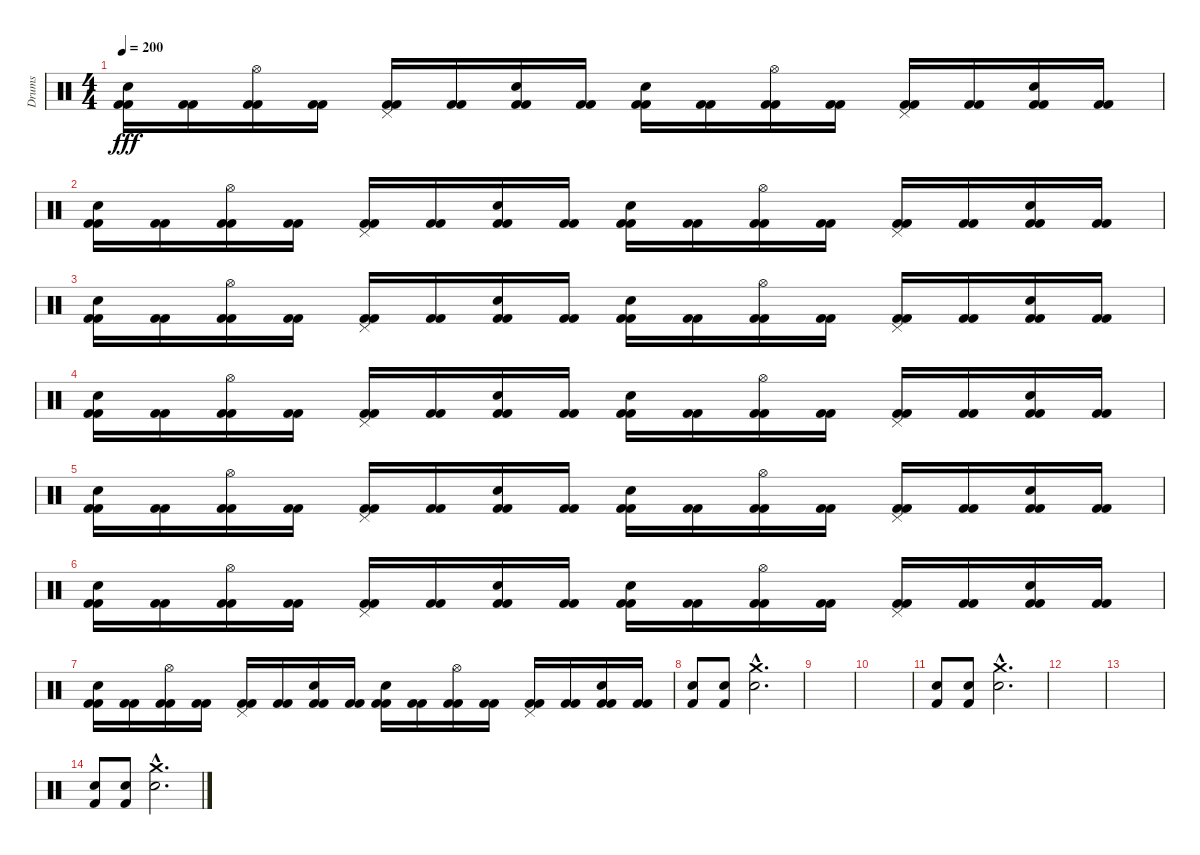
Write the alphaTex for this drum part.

\track ("Drums" "Drums") {instrument percussion}
\staff {score}
\articulation defaults
\ts (4 4)
\tempo 200
\clef neutral
\ks c
("Electric Snare (hit)" "Kick (hit) 2" "Kick (hit) 2").16{dy fff} ("Kick (hit) 2" "Kick (hit) 2").16 ("Hi-Hat (open)" "Kick (hit) 2" "Kick (hit) 2").16 ("Kick (hit) 2" "Kick (hit) 2").16 ("Pedal Hi-Hat (hit)" "Kick (hit) 2" "Kick (hit) 2").16 ("Kick (hit) 2" "Kick (hit) 2").16 ("Electric Snare (hit)" "Kick (hit) 2" "Kick (hit) 2").16 ("Kick (hit) 2" "Kick (hit) 2").16 ("Electric Snare (hit)" "Kick (hit) 2" "Kick (hit) 2").16 ("Kick (hit) 2" "Kick (hit) 2").16 ("Hi-Hat (open)" "Kick (hit) 2" "Kick (hit) 2").16 ("Kick (hit) 2" "Kick (hit) 2").16 ("Pedal Hi-Hat (hit)" "Kick (hit) 2" "Kick (hit) 2").16 ("Kick (hit) 2" "Kick (hit) 2").16 ("Electric Snare (hit)" "Kick (hit) 2" "Kick (hit) 2").16 ("Kick (hit) 2" "Kick (hit) 2").16 |
("Electric Snare (hit)" "Kick (hit) 2" "Kick (hit) 2").16 ("Kick (hit) 2" "Kick (hit) 2").16 ("Hi-Hat (open)" "Kick (hit) 2" "Kick (hit) 2").16 ("Kick (hit) 2" "Kick (hit) 2").16 ("Pedal Hi-Hat (hit)" "Kick (hit) 2" "Kick (hit) 2").16 ("Kick (hit) 2" "Kick (hit) 2").16 ("Electric Snare (hit)" "Kick (hit) 2" "Kick (hit) 2").16 ("Kick (hit) 2" "Kick (hit) 2").16 ("Electric Snare (hit)" "Kick (hit) 2" "Kick (hit) 2").16 ("Kick (hit) 2" "Kick (hit) 2").16 ("Hi-Hat (open)" "Kick (hit) 2" "Kick (hit) 2").16 ("Kick (hit) 2" "Kick (hit) 2").16 ("Pedal Hi-Hat (hit)" "Kick (hit) 2" "Kick (hit) 2").16 ("Kick (hit) 2" "Kick (hit) 2").16 ("Electric Snare (hit)" "Kick (hit) 2" "Kick (hit) 2").16 ("Kick (hit) 2" "Kick (hit) 2").16 |
("Electric Snare (hit)" "Kick (hit) 2" "Kick (hit) 2").16 ("Kick (hit) 2" "Kick (hit) 2").16 ("Hi-Hat (open)" "Kick (hit) 2" "Kick (hit) 2").16 ("Kick (hit) 2" "Kick (hit) 2").16 ("Pedal Hi-Hat (hit)" "Kick (hit) 2" "Kick (hit) 2").16 ("Kick (hit) 2" "Kick (hit) 2").16 ("Electric Snare (hit)" "Kick (hit) 2" "Kick (hit) 2").16 ("Kick (hit) 2" "Kick (hit) 2").16 ("Electric Snare (hit)" "Kick (hit) 2" "Kick (hit) 2").16 ("Kick (hit) 2" "Kick (hit) 2").16 ("Hi-Hat (open)" "Kick (hit) 2" "Kick (hit) 2").16 ("Kick (hit) 2" "Kick (hit) 2").16 ("Pedal Hi-Hat (hit)" "Kick (hit) 2" "Kick (hit) 2").16 ("Kick (hit) 2" "Kick (hit) 2").16 ("Electric Snare (hit)" "Kick (hit) 2" "Kick (hit) 2").16 ("Kick (hit) 2" "Kick (hit) 2").16 |
("Electric Snare (hit)" "Kick (hit) 2" "Kick (hit) 2").16 ("Kick (hit) 2" "Kick (hit) 2").16 ("Hi-Hat (open)" "Kick (hit) 2" "Kick (hit) 2").16 ("Kick (hit) 2" "Kick (hit) 2").16 ("Pedal Hi-Hat (hit)" "Kick (hit) 2" "Kick (hit) 2").16 ("Kick (hit) 2" "Kick (hit) 2").16 ("Electric Snare (hit)" "Kick (hit) 2" "Kick (hit) 2").16 ("Kick (hit) 2" "Kick (hit) 2").16 ("Electric Snare (hit)" "Kick (hit) 2" "Kick (hit) 2").16 ("Kick (hit) 2" "Kick (hit) 2").16 ("Hi-Hat (open)" "Kick (hit) 2" "Kick (hit) 2").16 ("Kick (hit) 2" "Kick (hit) 2").16 ("Pedal Hi-Hat (hit)" "Kick (hit) 2" "Kick (hit) 2").16 ("Kick (hit) 2" "Kick (hit) 2").16 ("Electric Snare (hit)" "Kick (hit) 2" "Kick (hit) 2").16 ("Kick (hit) 2" "Kick (hit) 2").16 |
("Electric Snare (hit)" "Kick (hit) 2" "Kick (hit) 2").16 ("Kick (hit) 2" "Kick (hit) 2").16 ("Hi-Hat (open)" "Kick (hit) 2" "Kick (hit) 2").16 ("Kick (hit) 2" "Kick (hit) 2").16 ("Pedal Hi-Hat (hit)" "Kick (hit) 2" "Kick (hit) 2").16 ("Kick (hit) 2" "Kick (hit) 2").16 ("Electric Snare (hit)" "Kick (hit) 2" "Kick (hit) 2").16 ("Kick (hit) 2" "Kick (hit) 2").16 ("Electric Snare (hit)" "Kick (hit) 2" "Kick (hit) 2").16 ("Kick (hit) 2" "Kick (hit) 2").16 ("Hi-Hat (open)" "Kick (hit) 2" "Kick (hit) 2").16 ("Kick (hit) 2" "Kick (hit) 2").16 ("Pedal Hi-Hat (hit)" "Kick (hit) 2" "Kick (hit) 2").16 ("Kick (hit) 2" "Kick (hit) 2").16 ("Electric Snare (hit)" "Kick (hit) 2" "Kick (hit) 2").16 ("Kick (hit) 2" "Kick (hit) 2").16 |
("Electric Snare (hit)" "Kick (hit) 2" "Kick (hit) 2").16 ("Kick (hit) 2" "Kick (hit) 2").16 ("Hi-Hat (open)" "Kick (hit) 2" "Kick (hit) 2").16 ("Kick (hit) 2" "Kick (hit) 2").16 ("Pedal Hi-Hat (hit)" "Kick (hit) 2" "Kick (hit) 2").16 ("Kick (hit) 2" "Kick (hit) 2").16 ("Electric Snare (hit)" "Kick (hit) 2" "Kick (hit) 2").16 ("Kick (hit) 2" "Kick (hit) 2").16 ("Electric Snare (hit)" "Kick (hit) 2" "Kick (hit) 2").16 ("Kick (hit) 2" "Kick (hit) 2").16 ("Hi-Hat (open)" "Kick (hit) 2" "Kick (hit) 2").16 ("Kick (hit) 2" "Kick (hit) 2").16 ("Pedal Hi-Hat (hit)" "Kick (hit) 2" "Kick (hit) 2").16 ("Kick (hit) 2" "Kick (hit) 2").16 ("Electric Snare (hit)" "Kick (hit) 2" "Kick (hit) 2").16 ("Kick (hit) 2" "Kick (hit) 2").16 |
("Electric Snare (hit)" "Kick (hit) 2" "Kick (hit) 2").16 ("Kick (hit) 2" "Kick (hit) 2").16 ("Hi-Hat (open)" "Kick (hit) 2" "Kick (hit) 2").16 ("Kick (hit) 2" "Kick (hit) 2").16 ("Pedal Hi-Hat (hit)" "Kick (hit) 2" "Kick (hit) 2").16 ("Kick (hit) 2" "Kick (hit) 2").16 ("Electric Snare (hit)" "Kick (hit) 2" "Kick (hit) 2").16 ("Kick (hit) 2" "Kick (hit) 2").16 ("Electric Snare (hit)" "Kick (hit) 2" "Kick (hit) 2").16 ("Kick (hit) 2" "Kick (hit) 2").16 ("Hi-Hat (open)" "Kick (hit) 2" "Kick (hit) 2").16 ("Kick (hit) 2" "Kick (hit) 2").16 ("Pedal Hi-Hat (hit)" "Kick (hit) 2" "Kick (hit) 2").16 ("Kick (hit) 2" "Kick (hit) 2").16 ("Electric Snare (hit)" "Kick (hit) 2" "Kick (hit) 2").16 ("Kick (hit) 2" "Kick (hit) 2").16 |
("Kick (hit) 2" "Electric Snare (hit)").8 ("Kick (hit) 2" "Electric Snare (hit)").8 ("Crash medium (hit)"{hac} "Electric Snare (hit)"{hac}).2{d} |
|
|
("Kick (hit) 2" "Electric Snare (hit)").8 ("Kick (hit) 2" "Electric Snare (hit)").8 ("Crash medium (hit)"{hac} "Electric Snare (hit)"{hac}).2{d} |
|
|
("Kick (hit) 2" "Electric Snare (hit)").8 ("Kick (hit) 2" "Electric Snare (hit)").8 ("Crash medium (hit)"{hac} "Electric Snare (hit)"{hac}).2{d}
